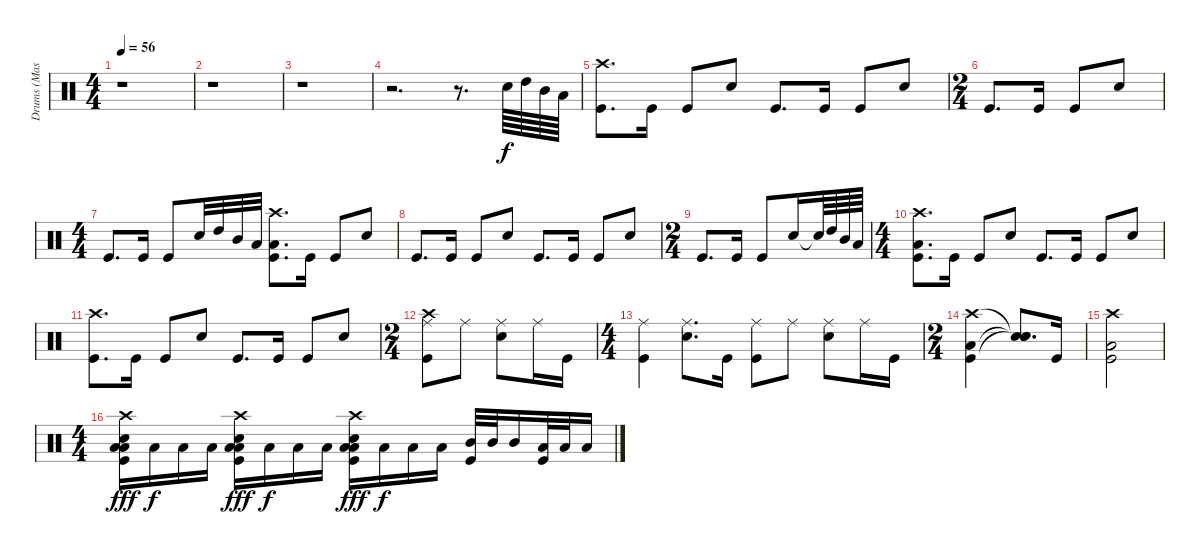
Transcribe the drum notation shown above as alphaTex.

\track ("Drums (Mason)" "Drums (Mas") {instrument percussion}
\staff {score}
\articulation defaults
\ts (4 4)
\tempo 56
\clef neutral
\ks c
r.1{dy f} |
r.1 |
r.1 |
r.2{d} r.8{d} "Snare (hit) 2".64 "High Tom (hit)".64 "Mid Tom (hit)".64 "Low Tom (hit)".64 |
("Crash high (hit)" "Kick (hit)").8{d} "Kick (hit)".16 "Kick (hit)".8 "Snare (hit) 2".8 "Kick (hit)".8{d} "Kick (hit)".16 "Kick (hit)".8 "Snare (hit) 2".8 |
\ts (2 4)
"Kick (hit)".8{d} "Kick (hit)".16 "Kick (hit)".8 "Snare (hit) 2".8 |
\ts (4 4)
"Kick (hit)".8{d} "Kick (hit)".16 "Kick (hit)".8 "Snare (hit) 2".32 "High Tom (hit)".32 "Mid Tom (hit)".32 "Low Tom (hit)".32 ("Crash high (hit)" "Low Floor Tom (hit)" "Kick (hit)").8{d} "Kick (hit)".16 "Kick (hit)".8 "Snare (hit) 2".8 |
"Kick (hit)".8{d} "Kick (hit)".16 "Kick (hit)".8 "Snare (hit) 2".8 "Kick (hit)".8{d} "Kick (hit)".16 "Kick (hit)".8 "Snare (hit) 2".8 |
\ts (2 4)
"Kick (hit)".8{d} "Kick (hit)".16 "Kick (hit)".8 "Snare (hit) 2".16 "Snare (hit)"{t}.64 "High Tom (hit)".64 "Mid Tom (hit)".64 "Low Tom (hit)".64 |
\ts (4 4)
("Crash high (hit)" "Low Floor Tom (hit)" "Kick (hit)").8{d} "Kick (hit)".16 "Kick (hit)".8 "Snare (hit) 2".8 "Kick (hit)".8{d} "Kick (hit)".16 "Kick (hit)".8 "Snare (hit) 2".8 |
("Crash high (hit)" "Kick (hit)").8{d} "Kick (hit)".16 "Kick (hit)".8 "Snare (hit) 2".8 "Kick (hit)".8{d} "Kick (hit)".16 "Kick (hit)".8 "Snare (hit) 2".8 |
\ts (2 4)
("Ride (middle)" "Crash high (hit)" "Kick (hit)").8 "Ride (middle)".8 ("Ride (middle)" "Snare (hit) 2").8 "Ride (middle)".16 "Kick (hit)".16 |
\ts (4 4)
("Ride (middle)" "Kick (hit)").4 ("Ride (middle)" "Snare (hit) 2").8{d} "Kick (hit)".16 ("Ride (middle)" "Kick (hit)").8 "Ride (middle)".8 ("Ride (middle)" "Snare (hit) 2").8 "Ride (middle)".16 "Kick (hit)".16 |
\ts (2 4)
("Crash high (hit)" "Low Floor Tom (hit)" "Kick (hit)").4 ("Snare (hit)"{t} "Snare (hit)"{t} "Snare (hit)"{t}).8{d} "Kick (hit)".16 |
("Crash high (hit)" "Low Floor Tom (hit)" "Kick (hit)").2 |
\ts (4 4)
("Crash high (hit)" "Low Tom (hit)" "Low Floor Tom (hit)" "Snare (hit) 2" "Kick (hit)").16{dy fff} "Low Floor Tom (hit)".16{dy f} "Low Floor Tom (hit)".16 "Low Floor Tom (hit)".16 ("Crash high (hit)" "Low Tom (hit)" "Low Floor Tom (hit)" "Snare (hit) 2" "Kick (hit)").16{dy fff} "Low Floor Tom (hit)".16{dy f} "Low Floor Tom (hit)".16 "Low Floor Tom (hit)".16 ("Crash high (hit)" "Low Tom (hit)" "Low Floor Tom (hit)" "Snare (hit) 2" "Kick (hit)").16{dy fff} "Low Floor Tom (hit)".16{dy f} "Low Floor Tom (hit)".16 "Low Floor Tom (hit)".16 ("Mid Tom (hit)" "Kick (hit)").32 "Mid Tom (hit)".32 "Mid Tom (hit)".16 ("Low Tom (hit)" "Kick (hit)").32 "Low Tom (hit)".32 "Low Tom (hit)".16
